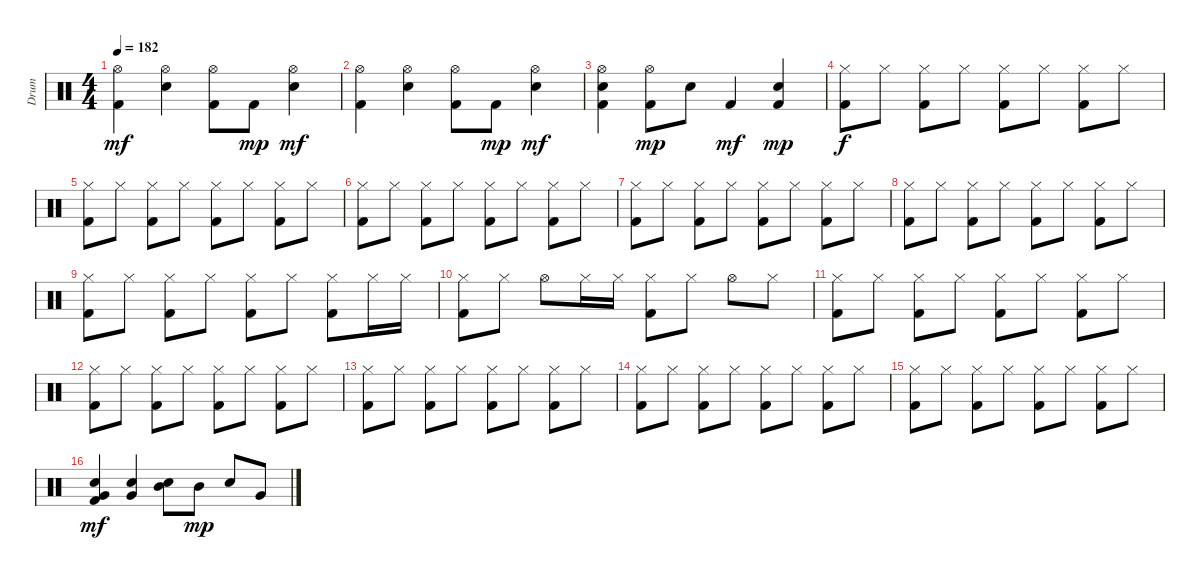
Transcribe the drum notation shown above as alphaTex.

\track ("Drum" "Drum") {instrument percussion}
\staff {score}
\articulation defaults
\ts (4 4)
\tempo 182
\clef neutral
\ks c
("Hi-Hat (open)" "Kick (hit) 2").4{dy mf} ("Snare (hit) 2" "Hi-Hat (open)").4 ("Hi-Hat (open)" "Kick (hit) 2").8 "Kick (hit) 2".8{dy mp} ("Snare (hit) 2" "Hi-Hat (open)").4{dy mf} |
("Hi-Hat (open)" "Kick (hit) 2").4 ("Snare (hit) 2" "Hi-Hat (open)").4 ("Hi-Hat (open)" "Kick (hit) 2").8 "Kick (hit) 2".8{dy mp} ("Snare (hit) 2" "Hi-Hat (open)").4{dy mf} |
("Snare (hit) 2" "Hi-Hat (open)" "Kick (hit) 2").4 ("Hi-Hat (open)" "Kick (hit) 2").8{dy mp} "Snare (hit) 2".8 "Kick (hit) 2".4{dy mf} ("Snare (hit) 2" "Kick (hit) 2").4{dy mp} |
("Hi-Hat (closed)" "Kick (hit) 2").8{dy f} "Hi-Hat (closed)".8 ("Hi-Hat (closed)" "Kick (hit) 2").8 "Hi-Hat (closed)".8 ("Hi-Hat (closed)" "Kick (hit) 2").8 "Hi-Hat (closed)".8 ("Hi-Hat (closed)" "Kick (hit) 2").8 "Hi-Hat (closed)".8 |
("Hi-Hat (closed)" "Kick (hit) 2").8 "Hi-Hat (closed)".8 ("Hi-Hat (closed)" "Kick (hit) 2").8 "Hi-Hat (closed)".8 ("Hi-Hat (closed)" "Kick (hit) 2").8 "Hi-Hat (closed)".8 ("Hi-Hat (closed)" "Kick (hit) 2").8 "Hi-Hat (closed)".8 |
("Hi-Hat (closed)" "Kick (hit) 2").8 "Hi-Hat (closed)".8 ("Hi-Hat (closed)" "Kick (hit) 2").8 "Hi-Hat (closed)".8 ("Hi-Hat (closed)" "Kick (hit) 2").8 "Hi-Hat (closed)".8 ("Hi-Hat (closed)" "Kick (hit) 2").8 "Hi-Hat (closed)".8 |
("Hi-Hat (closed)" "Kick (hit) 2").8 "Hi-Hat (closed)".8 ("Hi-Hat (closed)" "Kick (hit) 2").8 "Hi-Hat (closed)".8 ("Hi-Hat (closed)" "Kick (hit) 2").8 "Hi-Hat (closed)".8 ("Hi-Hat (closed)" "Kick (hit) 2").8 "Hi-Hat (closed)".8 |
("Hi-Hat (closed)" "Kick (hit) 2").8 "Hi-Hat (closed)".8 ("Hi-Hat (closed)" "Kick (hit) 2").8 "Hi-Hat (closed)".8 ("Hi-Hat (closed)" "Kick (hit) 2").8 "Hi-Hat (closed)".8 ("Hi-Hat (closed)" "Kick (hit) 2").8 "Hi-Hat (closed)".8 |
("Hi-Hat (closed)" "Kick (hit) 2").8 "Hi-Hat (closed)".8 ("Hi-Hat (closed)" "Kick (hit) 2").8 "Hi-Hat (closed)".8 ("Hi-Hat (closed)" "Kick (hit) 2").8 "Hi-Hat (closed)".8 ("Hi-Hat (closed)" "Kick (hit) 2").8 "Hi-Hat (closed)".16 "Hi-Hat (closed)".16 |
("Hi-Hat (closed)" "Kick (hit) 2").8 "Hi-Hat (closed)".8 "Hi-Hat (open)".8 "Hi-Hat (closed)".16 "Hi-Hat (closed)".16 ("Hi-Hat (closed)" "Kick (hit) 2").8 "Hi-Hat (closed)".8 "Hi-Hat (open)".8 "Hi-Hat (closed)".8 |
("Hi-Hat (closed)" "Kick (hit) 2").8 "Hi-Hat (closed)".8 ("Hi-Hat (closed)" "Kick (hit) 2").8 "Hi-Hat (closed)".8 ("Hi-Hat (closed)" "Kick (hit) 2").8 "Hi-Hat (closed)".8 ("Hi-Hat (closed)" "Kick (hit) 2").8 "Hi-Hat (closed)".8 |
("Hi-Hat (closed)" "Kick (hit) 2").8 "Hi-Hat (closed)".8 ("Hi-Hat (closed)" "Kick (hit) 2").8 "Hi-Hat (closed)".8 ("Hi-Hat (closed)" "Kick (hit) 2").8 "Hi-Hat (closed)".8 ("Hi-Hat (closed)" "Kick (hit) 2").8 "Hi-Hat (closed)".8 |
("Hi-Hat (closed)" "Kick (hit) 2").8 "Hi-Hat (closed)".8 ("Hi-Hat (closed)" "Kick (hit) 2").8 "Hi-Hat (closed)".8 ("Hi-Hat (closed)" "Kick (hit) 2").8 "Hi-Hat (closed)".8 ("Hi-Hat (closed)" "Kick (hit) 2").8 "Hi-Hat (closed)".8 |
("Hi-Hat (closed)" "Kick (hit) 2").8 "Hi-Hat (closed)".8 ("Hi-Hat (closed)" "Kick (hit) 2").8 "Hi-Hat (closed)".8 ("Hi-Hat (closed)" "Kick (hit) 2").8 "Hi-Hat (closed)".8 ("Hi-Hat (closed)" "Kick (hit) 2").8 "Hi-Hat (closed)".8 |
("Hi-Hat (closed)" "Kick (hit) 2").8 "Hi-Hat (closed)".8 ("Hi-Hat (closed)" "Kick (hit) 2").8 "Hi-Hat (closed)".8 ("Hi-Hat (closed)" "Kick (hit) 2").8 "Hi-Hat (closed)".8 ("Hi-Hat (closed)" "Kick (hit) 2").8 "Hi-Hat (closed)".8 |
("Very Low Tom (hit)" "Snare (hit) 2" "Kick (hit) 2").4{dy mf} ("Very Low Tom (hit)" "Snare (hit) 2").4 ("Snare (hit) 2" "Mid Tom (hit)").8 "Mid Tom (hit)".8{dy mp} "Snare (hit) 2".8 "Very Low Tom (hit)".8
